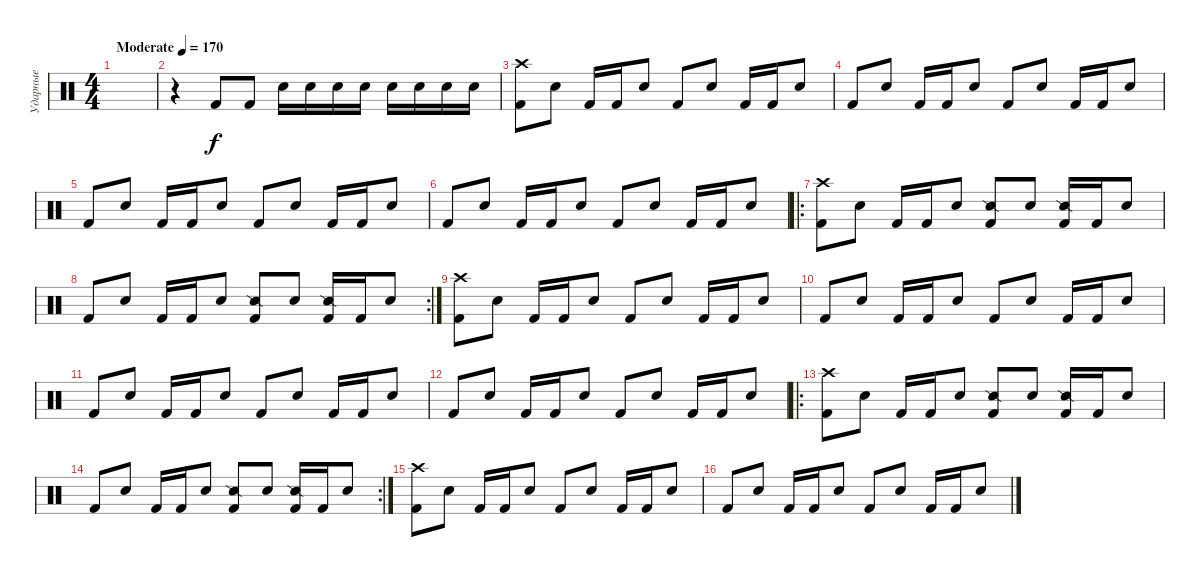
\track ("Ударные" "Ударные") {instrument percussion}
\staff {score}
\articulation defaults
\ts (4 4)
\tempo (170 "Moderate")
\clef neutral
\ks c
|
r.4 "Kick (hit) 2".8 "Kick (hit) 2".8 "Snare (hit) 2".16 "Snare (hit) 2".16 "Snare (hit) 2".16 "Snare (hit) 2".16 "Snare (hit) 2".16 "Snare (hit) 2".16 "Snare (hit) 2".16 "Snare (hit) 2".16 |
("Crash high (hit)" "Kick (hit) 2").8 "Snare (hit) 2".8 "Kick (hit) 2".16 "Kick (hit) 2".16 "Snare (hit) 2".8 "Kick (hit) 2".8 "Snare (hit) 2".8 "Kick (hit) 2".16 "Kick (hit) 2".16 "Snare (hit) 2".8 |
"Kick (hit) 2".8 "Snare (hit) 2".8 "Kick (hit) 2".16 "Kick (hit) 2".16 "Snare (hit) 2".8 "Kick (hit) 2".8 "Snare (hit) 2".8 "Kick (hit) 2".16 "Kick (hit) 2".16 "Snare (hit) 2".8 |
"Kick (hit) 2".8 "Snare (hit) 2".8 "Kick (hit) 2".16 "Kick (hit) 2".16 "Snare (hit) 2".8 "Kick (hit) 2".8 "Snare (hit) 2".8 "Kick (hit) 2".16 "Kick (hit) 2".16 "Snare (hit) 2".8 |
"Kick (hit) 2".8 "Snare (hit) 2".8 "Kick (hit) 2".16 "Kick (hit) 2".16 "Snare (hit) 2".8 "Kick (hit) 2".8 "Snare (hit) 2".8 "Kick (hit) 2".16 "Kick (hit) 2".16 "Snare (hit) 2".8 |
\ro
("Crash high (hit)" "Kick (hit) 2").8 "Snare (hit) 2".8 "Kick (hit) 2".16 "Kick (hit) 2".16 "Snare (hit) 2".8 ("Snare (side stick) 2" "Kick (hit) 2").8 "Snare (hit) 2".8 ("Snare (side stick) 2" "Kick (hit) 2").16 "Kick (hit) 2".16 "Snare (hit) 2".8 |
\rc 2 "Kick (hit) 2".8 "Snare (hit) 2".8 "Kick (hit) 2".16 "Kick (hit) 2".16 "Snare (hit) 2".8
("Snare (side stick) 2" "Kick (hit) 2").8 "Snare (hit) 2".8 ("Snare (side stick) 2" "Kick (hit) 2").16 "Kick (hit) 2".16 "Snare (hit) 2".8 |
("Crash high (hit)" "Kick (hit) 2").8 "Snare (hit) 2".8 "Kick (hit) 2".16 "Kick (hit) 2".16 "Snare (hit) 2".8 "Kick (hit) 2".8 "Snare (hit) 2".8 "Kick (hit) 2".16 "Kick (hit) 2".16 "Snare (hit) 2".8 |
"Kick (hit) 2".8 "Snare (hit) 2".8 "Kick (hit) 2".16 "Kick (hit) 2".16 "Snare (hit) 2".8 "Kick (hit) 2".8 "Snare (hit) 2".8 "Kick (hit) 2".16 "Kick (hit) 2".16 "Snare (hit) 2".8 |
"Kick (hit) 2".8 "Snare (hit) 2".8 "Kick (hit) 2".16 "Kick (hit) 2".16 "Snare (hit) 2".8 "Kick (hit) 2".8 "Snare (hit) 2".8 "Kick (hit) 2".16 "Kick (hit) 2".16 "Snare (hit) 2".8 |
"Kick (hit) 2".8 "Snare (hit) 2".8 "Kick (hit) 2".16 "Kick (hit) 2".16 "Snare (hit) 2".8 "Kick (hit) 2".8 "Snare (hit) 2".8 "Kick (hit) 2".16 "Kick (hit) 2".16 "Snare (hit) 2".8 |
\ro
("Crash high (hit)" "Kick (hit) 2").8 "Snare (hit) 2".8 "Kick (hit) 2".16 "Kick (hit) 2".16 "Snare (hit) 2".8 ("Snare (side stick) 2" "Kick (hit) 2").8 "Snare (hit) 2".8 ("Snare (side stick) 2" "Kick (hit) 2").16 "Kick (hit) 2".16 "Snare (hit) 2".8 |
\rc 2 "Kick (hit) 2".8 "Snare (hit) 2".8 "Kick (hit) 2".16 "Kick (hit) 2".16 "Snare (hit) 2".8
("Snare (side stick) 2" "Kick (hit) 2").8 "Snare (hit) 2".8 ("Snare (side stick) 2" "Kick (hit) 2").16 "Kick (hit) 2".16 "Snare (hit) 2".8 |
("Crash high (hit)" "Kick (hit) 2").8 "Snare (hit) 2".8 "Kick (hit) 2".16 "Kick (hit) 2".16 "Snare (hit) 2".8 "Kick (hit) 2".8 "Snare (hit) 2".8 "Kick (hit) 2".16 "Kick (hit) 2".16 "Snare (hit) 2".8 |
"Kick (hit) 2".8 "Snare (hit) 2".8 "Kick (hit) 2".16 "Kick (hit) 2".16 "Snare (hit) 2".8 "Kick (hit) 2".8 "Snare (hit) 2".8 "Kick (hit) 2".16 "Kick (hit) 2".16 "Snare (hit) 2".8
